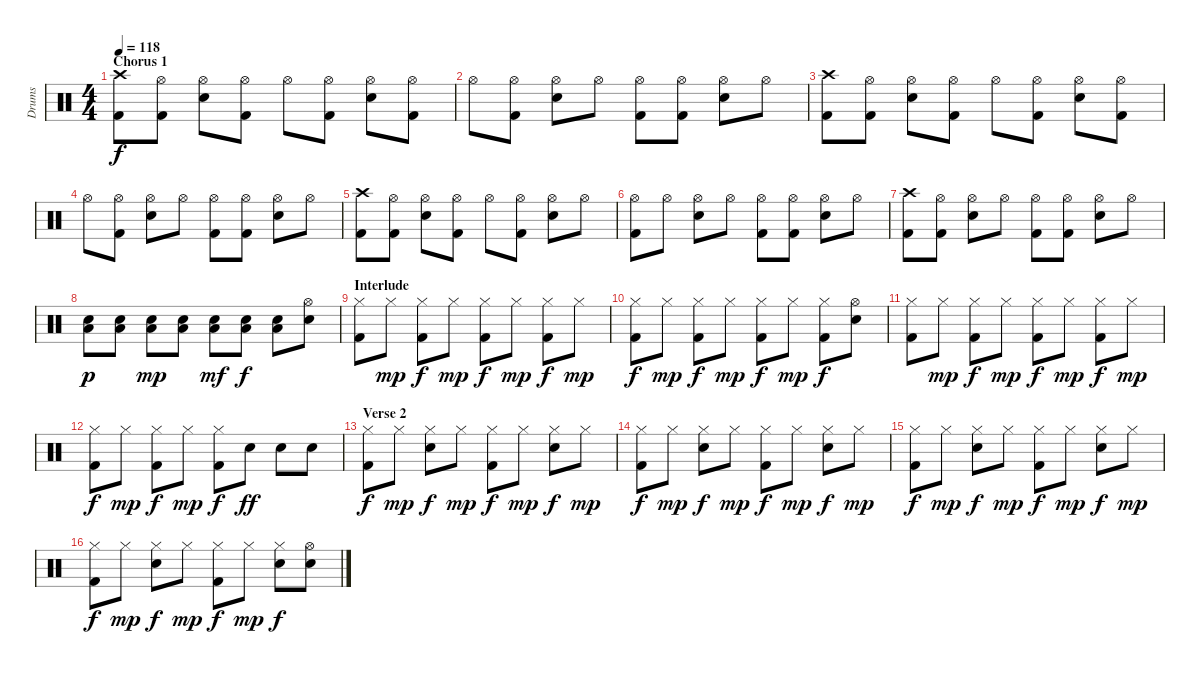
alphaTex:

\track ("Drums" "Drums") {instrument percussion}
\staff {score}
\articulation defaults
\ts (4 4)
\section ("" "Chorus 1")
\tempo 118
\clef neutral
\ks c
("Crash high (hit)" "Kick (hit) 2").8{dy f} ("Hi-Hat (open)" "Kick (hit) 2").8 ("Hi-Hat (open)" "Snare (hit) 2").8 ("Hi-Hat (open)" "Kick (hit) 2").8 "Hi-Hat (open)".8 ("Hi-Hat (open)" "Kick (hit) 2").8 ("Hi-Hat (open)" "Snare (hit) 2").8 ("Hi-Hat (open)" "Kick (hit) 2").8 |
"Hi-Hat (open)".8 ("Hi-Hat (open)" "Kick (hit) 2").8 ("Hi-Hat (open)" "Snare (hit) 2").8 "Hi-Hat (open)".8 ("Hi-Hat (open)" "Kick (hit) 2").8 ("Hi-Hat (open)" "Kick (hit) 2").8 ("Hi-Hat (open)" "Snare (hit) 2").8 "Hi-Hat (open)".8 |
("Crash high (hit)" "Kick (hit) 2").8 ("Hi-Hat (open)" "Kick (hit) 2").8 ("Hi-Hat (open)" "Snare (hit) 2").8 ("Hi-Hat (open)" "Kick (hit) 2").8 "Hi-Hat (open)".8 ("Hi-Hat (open)" "Kick (hit) 2").8 ("Hi-Hat (open)" "Snare (hit) 2").8 ("Hi-Hat (open)" "Kick (hit) 2").8 |
"Hi-Hat (open)".8 ("Hi-Hat (open)" "Kick (hit) 2").8 ("Hi-Hat (open)" "Snare (hit) 2").8 "Hi-Hat (open)".8 ("Hi-Hat (open)" "Kick (hit) 2").8 ("Hi-Hat (open)" "Kick (hit) 2").8 ("Hi-Hat (open)" "Snare (hit) 2").8 "Hi-Hat (open)".8 |
("Crash high (hit)" "Kick (hit) 2").8 ("Hi-Hat (open)" "Kick (hit) 2").8 ("Hi-Hat (open)" "Snare (hit) 2").8 ("Hi-Hat (open)" "Kick (hit) 2").8 "Hi-Hat (open)".8 ("Hi-Hat (open)" "Kick (hit) 2").8 ("Hi-Hat (open)" "Snare (hit) 2").8 "Hi-Hat (open)".8 |
("Hi-Hat (open)" "Kick (hit) 2").8 "Hi-Hat (open)".8 ("Hi-Hat (open)" "Snare (hit) 2").8 "Hi-Hat (open)".8 ("Hi-Hat (open)" "Kick (hit) 2").8 ("Hi-Hat (open)" "Kick (hit) 2").8 ("Hi-Hat (open)" "Snare (hit) 2").8 "Hi-Hat (open)".8 |
("Crash high (hit)" "Kick (hit) 2").8 ("Hi-Hat (open)" "Kick (hit) 2").8 ("Hi-Hat (open)" "Snare (hit) 2").8 "Hi-Hat (open)".8 ("Hi-Hat (open)" "Kick (hit) 2").8 ("Hi-Hat (open)" "Kick (hit) 2").8 ("Hi-Hat (open)" "Snare (hit) 2").8 "Hi-Hat (open)".8 |
("Snare (hit) 2" "Low Tom (hit)").8{dy p} ("Snare (hit) 2" "Low Tom (hit)").8 ("Snare (hit) 2" "Low Tom (hit)").8{dy mp} ("Snare (hit) 2" "Low Tom (hit)").8 ("Snare (hit) 2" "Low Tom (hit)").8{dy mf} ("Snare (hit) 2" "Low Tom (hit)").8{dy f} ("Snare (hit) 2" "Low Tom (hit)").8 ("Hi-Hat (open)" "Snare (hit) 2").8 |
\section ("" "Interlude")
("Hi-Hat (closed)" "Kick (hit) 2").8 "Hi-Hat (closed)".8{dy mp} ("Hi-Hat (closed)" "Kick (hit) 2").8{dy f} "Hi-Hat (closed)".8{dy mp} ("Hi-Hat (closed)" "Kick (hit) 2").8{dy f} "Hi-Hat (closed)".8{dy mp} ("Hi-Hat (closed)" "Kick (hit) 2").8{dy f} "Hi-Hat (closed)".8{dy mp} |
("Hi-Hat (closed)" "Kick (hit) 2").8{dy f} "Hi-Hat (closed)".8{dy mp} ("Hi-Hat (closed)" "Kick (hit) 2").8{dy f} "Hi-Hat (closed)".8{dy mp} ("Hi-Hat (closed)" "Kick (hit) 2").8{dy f} "Hi-Hat (closed)".8{dy mp} ("Hi-Hat (closed)" "Kick (hit) 2").8{dy f} ("Hi-Hat (open)" "Snare (hit) 2").8 |
("Hi-Hat (closed)" "Kick (hit) 2").8 "Hi-Hat (closed)".8{dy mp} ("Hi-Hat (closed)" "Kick (hit) 2").8{dy f} "Hi-Hat (closed)".8{dy mp} ("Hi-Hat (closed)" "Kick (hit) 2").8{dy f} "Hi-Hat (closed)".8{dy mp} ("Hi-Hat (closed)" "Kick (hit) 2").8{dy f} "Hi-Hat (closed)".8{dy mp} |
("Hi-Hat (closed)" "Kick (hit) 2").8{dy f} "Hi-Hat (closed)".8{dy mp} ("Hi-Hat (closed)" "Kick (hit) 2").8{dy f} "Hi-Hat (closed)".8{dy mp} ("Hi-Hat (closed)" "Kick (hit) 2").8{dy f} "Hand Clap (hit)".8{dy ff} "Hand Clap (hit)".8 "Hand Clap (hit)".8 |
\section ("" "Verse 2")
("Hi-Hat (closed)" "Kick (hit) 2").8{dy f} "Hi-Hat (closed)".8{dy mp} ("Hi-Hat (closed)" "Snare (hit) 2").8{dy f} "Hi-Hat (closed)".8{dy mp} ("Hi-Hat (closed)" "Kick (hit) 2").8{dy f} "Hi-Hat (closed)".8{dy mp} ("Hi-Hat (closed)" "Snare (hit) 2").8{dy f} "Hi-Hat (closed)".8{dy mp} |
("Hi-Hat (closed)" "Kick (hit) 2").8{dy f} "Hi-Hat (closed)".8{dy mp} ("Hi-Hat (closed)" "Snare (hit) 2").8{dy f} "Hi-Hat (closed)".8{dy mp} ("Hi-Hat (closed)" "Kick (hit) 2").8{dy f} "Hi-Hat (closed)".8{dy mp} ("Hi-Hat (closed)" "Snare (hit) 2").8{dy f} "Hi-Hat (closed)".8{dy mp} |
("Hi-Hat (closed)" "Kick (hit) 2").8{dy f} "Hi-Hat (closed)".8{dy mp} ("Hi-Hat (closed)" "Snare (hit) 2").8{dy f} "Hi-Hat (closed)".8{dy mp} ("Hi-Hat (closed)" "Kick (hit) 2").8{dy f} "Hi-Hat (closed)".8{dy mp} ("Hi-Hat (closed)" "Snare (hit) 2").8{dy f} "Hi-Hat (closed)".8{dy mp} |
("Hi-Hat (closed)" "Kick (hit) 2").8{dy f} "Hi-Hat (closed)".8{dy mp} ("Hi-Hat (closed)" "Snare (hit) 2").8{dy f} "Hi-Hat (closed)".8{dy mp} ("Hi-Hat (closed)" "Kick (hit) 2").8{dy f} "Hi-Hat (closed)".8{dy mp} ("Hi-Hat (closed)" "Snare (hit) 2").8{dy f} ("Hi-Hat (open)" "Snare (hit) 2").8
